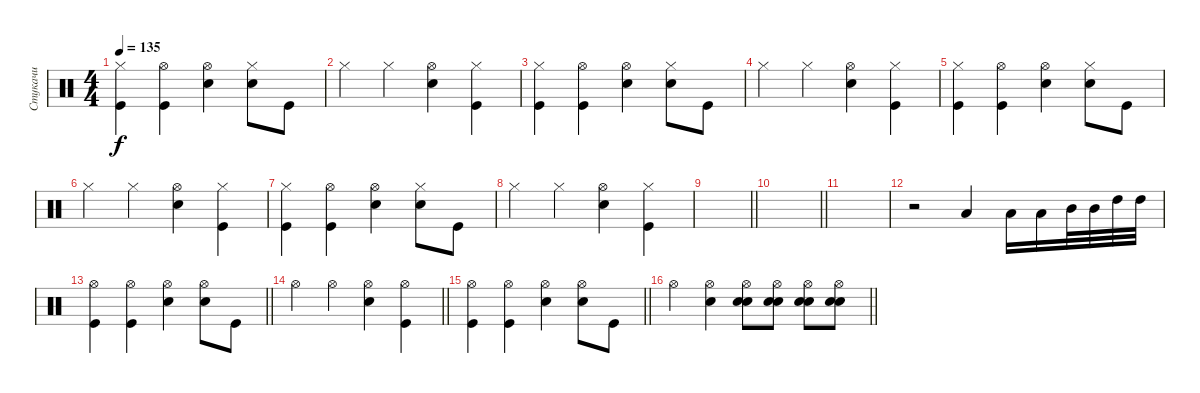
\track ("Стукачи" "Стукачи") {instrument percussion}
\staff {score}
\articulation defaults
\ts (4 4)
\tempo 135
\clef neutral
\ks c
("Hi-Hat (closed)" "Kick (hit)").4{dy f} ("Hi-Hat (open)" "Kick (hit)").4 ("Hi-Hat (open)" "Snare (hit) 2").4 ("Hi-Hat (closed)" "Snare (hit) 2").8 "Kick (hit)".8 |
"Hi-Hat (closed)".4 "Hi-Hat (closed)".4 ("Hi-Hat (open)" "Snare (hit) 2").4 ("Hi-Hat (closed)" "Kick (hit)").4 |
("Hi-Hat (closed)" "Kick (hit)").4 ("Hi-Hat (open)" "Kick (hit)").4 ("Hi-Hat (open)" "Snare (hit) 2").4 ("Hi-Hat (closed)" "Snare (hit) 2").8 "Kick (hit)".8 |
"Hi-Hat (closed)".4 "Hi-Hat (closed)".4 ("Hi-Hat (open)" "Snare (hit) 2").4 ("Hi-Hat (closed)" "Kick (hit)").4 |
("Hi-Hat (closed)" "Kick (hit)").4 ("Hi-Hat (open)" "Kick (hit)").4 ("Hi-Hat (open)" "Snare (hit) 2").4 ("Hi-Hat (closed)" "Snare (hit) 2").8 "Kick (hit)".8 |
"Hi-Hat (closed)".4 "Hi-Hat (closed)".4 ("Hi-Hat (open)" "Snare (hit) 2").4 ("Hi-Hat (closed)" "Kick (hit)").4 |
("Hi-Hat (closed)" "Kick (hit)").4 ("Hi-Hat (open)" "Kick (hit)").4 ("Hi-Hat (open)" "Snare (hit) 2").4 ("Hi-Hat (closed)" "Snare (hit) 2").8 "Kick (hit)".8 |
"Hi-Hat (closed)".4 "Hi-Hat (closed)".4 ("Hi-Hat (open)" "Snare (hit) 2").4 ("Hi-Hat (closed)" "Kick (hit)").4 |
\barLineRight lightlight
|
\barLineRight lightlight
|
|
r.2 "Low Tom (hit)".4 "Low Tom (hit)".16 "Low Tom (hit)".16 "Mid Tom (hit)".32 "Mid Tom (hit)".32 "High Tom (hit)".32 "High Tom (hit)".32 |
\barLineRight lightlight
("Hi-Hat (open)" "Kick (hit)").4 ("Hi-Hat (open)" "Kick (hit)").4 ("Hi-Hat (open)" "Snare (hit) 2").4 ("Hi-Hat (open)" "Snare (hit) 2").8 "Kick (hit)".8 |
\barLineRight lightlight "Hi-Hat (open)".4 "Hi-Hat (open)".4
("Hi-Hat (open)" "Snare (hit) 2").4 ("Hi-Hat (open)" "Kick (hit)").4 |
\barLineRight lightlight
("Hi-Hat (open)" "Kick (hit)").4 ("Hi-Hat (open)" "Kick (hit)").4 ("Hi-Hat (open)" "Snare (hit) 2").4 ("Hi-Hat (open)" "Snare (hit) 2").8 "Kick (hit)".8 |
\barLineRight lightlight "Hi-Hat (open)".4
("Hi-Hat (open)" "Snare (hit) 2").4 ("Hi-Hat (open)" "Snare (hit) 2" "Snare (hit) 2").8 ("Hi-Hat (open)" "Snare (hit) 2" "Snare (hit) 2").8 ("Hi-Hat (open)" "Snare (hit) 2" "Snare (hit) 2").8 ("Hi-Hat (open)" "Snare (hit) 2" "Snare (hit) 2").8
